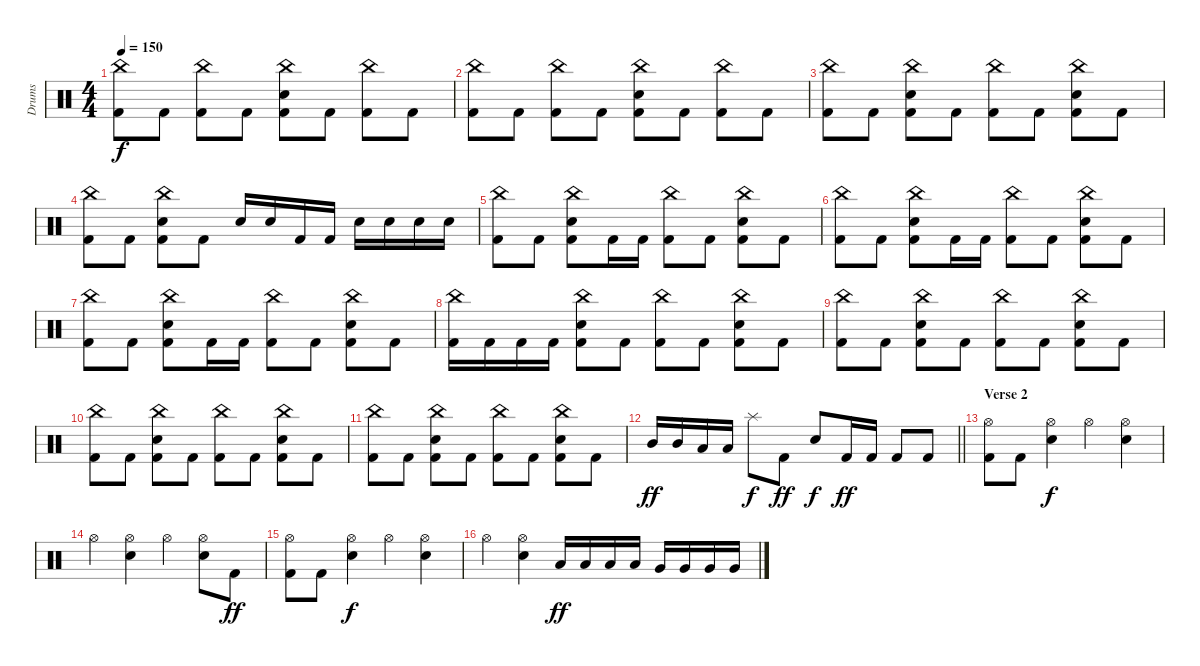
\track ("Drums" "Drums") {instrument percussion}
\staff {score}
\articulation defaults
\ts (4 4)
\tempo 150
\clef neutral
\ks c
("China (hit)" "Kick (hit) 2").8{dy f} "Kick (hit) 2".8 ("China (hit)" "Kick (hit) 2").8 "Kick (hit) 2".8 ("China (hit)" "Electric Snare (hit)" "Kick (hit) 2").8 "Kick (hit) 2".8 ("China (hit)" "Kick (hit) 2").8 "Kick (hit) 2".8 |
("China (hit)" "Kick (hit) 2").8 "Kick (hit) 2".8 ("China (hit)" "Kick (hit) 2").8 "Kick (hit) 2".8 ("China (hit)" "Electric Snare (hit)" "Kick (hit) 2").8 "Kick (hit) 2".8 ("China (hit)" "Kick (hit) 2").8 "Kick (hit) 2".8 |
("China (hit)" "Kick (hit) 2").8 "Kick (hit) 2".8 ("China (hit)" "Electric Snare (hit)" "Kick (hit) 2").8 "Kick (hit) 2".8 ("China (hit)" "Kick (hit) 2").8 "Kick (hit) 2".8 ("China (hit)" "Electric Snare (hit)" "Kick (hit) 2").8 "Kick (hit) 2".8 |
("China (hit)" "Kick (hit) 2").8 "Kick (hit) 2".8 ("China (hit)" "Electric Snare (hit)" "Kick (hit) 2").8 "Kick (hit) 2".8 "Electric Snare (hit)".16 "Electric Snare (hit)".16 "Kick (hit) 2".16 "Kick (hit) 2".16 "Electric Snare (hit)".16 "Electric Snare (hit)".16 "Electric Snare (hit)".16 "Electric Snare (hit)".16 |
("China (hit)" "Kick (hit) 2").8 "Kick (hit) 2".8 ("China (hit)" "Electric Snare (hit)" "Kick (hit) 2").8 "Kick (hit) 2".16 "Kick (hit) 2".16 ("China (hit)" "Kick (hit) 2").8 "Kick (hit) 2".8 ("China (hit)" "Electric Snare (hit)" "Kick (hit) 2").8 "Kick (hit) 2".8 |
("China (hit)" "Kick (hit) 2").8 "Kick (hit) 2".8 ("China (hit)" "Electric Snare (hit)" "Kick (hit) 2").8 "Kick (hit) 2".16 "Kick (hit) 2".16 ("China (hit)" "Kick (hit) 2").8 "Kick (hit) 2".8 ("China (hit)" "Electric Snare (hit)" "Kick (hit) 2").8 "Kick (hit) 2".8 |
("China (hit)" "Kick (hit) 2").8 "Kick (hit) 2".8 ("China (hit)" "Electric Snare (hit)" "Kick (hit) 2").8 "Kick (hit) 2".16 "Kick (hit) 2".16 ("China (hit)" "Kick (hit) 2").8 "Kick (hit) 2".8 ("China (hit)" "Electric Snare (hit)" "Kick (hit) 2").8 "Kick (hit) 2".8 |
("China (hit)" "Kick (hit) 2").16 "Kick (hit) 2".16 "Kick (hit) 2".16 "Kick (hit) 2".16 ("China (hit)" "Electric Snare (hit)" "Kick (hit) 2").8 "Kick (hit) 2".8 ("China (hit)" "Kick (hit) 2").8 "Kick (hit) 2".8 ("China (hit)" "Electric Snare (hit)" "Kick (hit) 2").8 "Kick (hit) 2".8 |
("China (hit)" "Kick (hit) 2").8 "Kick (hit) 2".8 ("China (hit)" "Electric Snare (hit)" "Kick (hit) 2").8 "Kick (hit) 2".8 ("China (hit)" "Kick (hit) 2").8 "Kick (hit) 2".8 ("China (hit)" "Electric Snare (hit)" "Kick (hit) 2").8 "Kick (hit) 2".8 |
("China (hit)" "Kick (hit) 2").8 "Kick (hit) 2".8 ("China (hit)" "Electric Snare (hit)" "Kick (hit) 2").8 "Kick (hit) 2".8 ("China (hit)" "Kick (hit) 2").8 "Kick (hit) 2".8 ("China (hit)" "Electric Snare (hit)" "Kick (hit) 2").8 "Kick (hit) 2".8 |
("China (hit)" "Kick (hit) 2").8 "Kick (hit) 2".8 ("China (hit)" "Electric Snare (hit)" "Kick (hit) 2").8 "Kick (hit) 2".8 ("China (hit)" "Kick (hit) 2").8 "Kick (hit) 2".8 ("China (hit)" "Electric Snare (hit)" "Kick (hit) 2").8 "Kick (hit) 2".8 |
\barLineRight lightlight "Mid Tom (hit)".16{dy ff} "Mid Tom (hit)".16 "Low Tom (hit)".16 "Low Tom (hit)".16 "Splash (hit)".8{dy f} "Kick (hit) 2".8{dy ff} "Electric Snare (hit)".8{dy f} "Kick (hit) 2".16{dy ff} "Kick (hit) 2".16 "Kick (hit) 2".8 "Kick (hit) 2".8
|
\section ("" "Verse 2")
("Hi-Hat (open)" "Kick (hit) 2").8 "Kick (hit) 2".8 ("Hi-Hat (open)" "Electric Snare (hit)").4{dy f} "Hi-Hat (open)".4 ("Hi-Hat (open)" "Electric Snare (hit)").4 |
"Hi-Hat (open)".4 ("Hi-Hat (open)" "Electric Snare (hit)").4 "Hi-Hat (open)".4 ("Hi-Hat (open)" "Electric Snare (hit)").8 "Kick (hit) 2".8{dy ff} |
("Hi-Hat (open)" "Kick (hit) 2").8 "Kick (hit) 2".8 ("Hi-Hat (open)" "Electric Snare (hit)").4{dy f} "Hi-Hat (open)".4 ("Hi-Hat (open)" "Electric Snare (hit)").4 |
"Hi-Hat (open)".4 ("Hi-Hat (open)" "Electric Snare (hit)").4 "Low Tom (hit)".16{dy ff} "Low Tom (hit)".16 "Low Tom (hit)".16 "Low Tom (hit)".16 "Very Low Tom (hit)".16 "Very Low Tom (hit)".16 "Very Low Tom (hit)".16 "Very Low Tom (hit)".16
